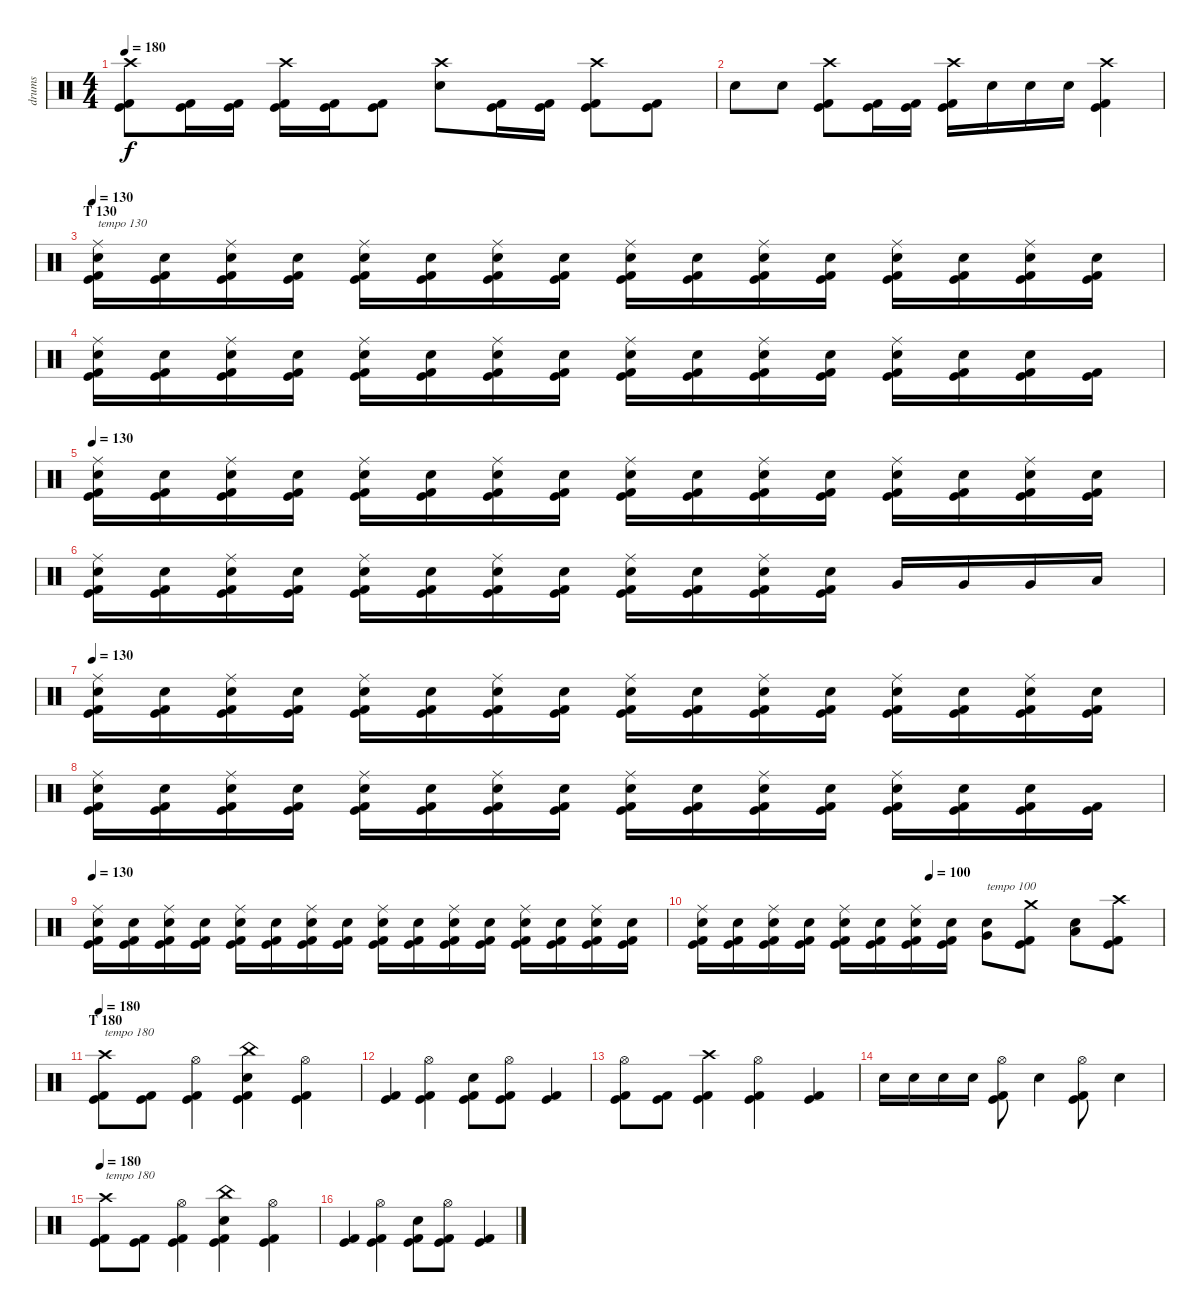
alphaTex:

\track ("drums" "drums") {instrument percussion}
\staff {score}
\articulation defaults
\ts (4 4)
\tempo 180
\clef neutral
\ks c
("Crash high (hit)" "Kick (hit) 2" "Kick (hit)").8{dy f} ("Kick (hit) 2" "Kick (hit)").16 ("Kick (hit) 2" "Kick (hit)").16 ("Crash high (hit)" "Kick (hit) 2" "Kick (hit)").16 ("Kick (hit) 2" "Kick (hit)").16 ("Kick (hit) 2" "Kick (hit)").8 ("Crash high (hit)" "Electric Snare (hit)").8 ("Kick (hit) 2" "Kick (hit)").16 ("Kick (hit) 2" "Kick (hit)").16 ("Crash high (hit)" "Kick (hit) 2" "Kick (hit)").8 ("Kick (hit) 2" "Kick (hit)").8 |
"Electric Snare (hit)".8 "Electric Snare (hit)".8 ("Crash high (hit)" "Kick (hit) 2" "Kick (hit)").8 ("Kick (hit) 2" "Kick (hit)").16 ("Kick (hit) 2" "Kick (hit)").16 ("Crash high (hit)" "Kick (hit) 2" "Kick (hit)").16 "Electric Snare (hit)".16 "Electric Snare (hit)".16 "Electric Snare (hit)".16 ("Crash high (hit)" "Kick (hit) 2" "Kick (hit)").4 |
\section ("" "T 130")
\tempo 130
("Ride (middle)" "Electric Snare (hit)" "Kick (hit) 2" "Kick (hit)").16{txt "tempo 130"} ("Electric Snare (hit)" "Kick (hit) 2" "Kick (hit)").16 ("Ride (middle)" "Electric Snare (hit)" "Kick (hit) 2" "Kick (hit)").16 ("Electric Snare (hit)" "Kick (hit) 2" "Kick (hit)").16 ("Ride (middle)" "Electric Snare (hit)" "Kick (hit) 2" "Kick (hit)").16 ("Electric Snare (hit)" "Kick (hit) 2" "Kick (hit)").16 ("Ride (middle)" "Electric Snare (hit)" "Kick (hit) 2" "Kick (hit)").16 ("Electric Snare (hit)" "Kick (hit) 2" "Kick (hit)").16 ("Ride (middle)" "Electric Snare (hit)" "Kick (hit) 2" "Kick (hit)").16 ("Electric Snare (hit)" "Kick (hit) 2" "Kick (hit)").16 ("Ride (middle)" "Electric Snare (hit)" "Kick (hit) 2" "Kick (hit)").16 ("Electric Snare (hit)" "Kick (hit) 2" "Kick (hit)").16 ("Ride (middle)" "Electric Snare (hit)" "Kick (hit) 2" "Kick (hit)").16 ("Electric Snare (hit)" "Kick (hit) 2" "Kick (hit)").16 ("Ride (middle)" "Electric Snare (hit)" "Kick (hit) 2" "Kick (hit)").16 ("Electric Snare (hit)" "Kick (hit) 2" "Kick (hit)").16 |
("Ride (middle)" "Electric Snare (hit)" "Kick (hit) 2" "Kick (hit)").16 ("Electric Snare (hit)" "Kick (hit) 2" "Kick (hit)").16 ("Ride (middle)" "Electric Snare (hit)" "Kick (hit) 2" "Kick (hit)").16 ("Electric Snare (hit)" "Kick (hit) 2" "Kick (hit)").16 ("Ride (middle)" "Electric Snare (hit)" "Kick (hit) 2" "Kick (hit)").16 ("Electric Snare (hit)" "Kick (hit) 2" "Kick (hit)").16 ("Ride (middle)" "Electric Snare (hit)" "Kick (hit) 2" "Kick (hit)").16 ("Electric Snare (hit)" "Kick (hit) 2" "Kick (hit)").16 ("Ride (middle)" "Electric Snare (hit)" "Kick (hit) 2" "Kick (hit)").16 ("Electric Snare (hit)" "Kick (hit) 2" "Kick (hit)").16 ("Ride (middle)" "Electric Snare (hit)" "Kick (hit) 2" "Kick (hit)").16 ("Electric Snare (hit)" "Kick (hit) 2" "Kick (hit)").16 ("Ride (middle)" "Electric Snare (hit)" "Kick (hit) 2" "Kick (hit)").16 ("Electric Snare (hit)" "Kick (hit) 2" "Kick (hit)").16 ("Electric Snare (hit)" "Kick (hit) 2" "Kick (hit)").16 ("Kick (hit) 2" "Kick (hit)").16 |
\tempo 130
("Ride (middle)" "Electric Snare (hit)" "Kick (hit) 2" "Kick (hit)").16 ("Electric Snare (hit)" "Kick (hit) 2" "Kick (hit)").16 ("Ride (middle)" "Electric Snare (hit)" "Kick (hit) 2" "Kick (hit)").16 ("Electric Snare (hit)" "Kick (hit) 2" "Kick (hit)").16 ("Ride (middle)" "Electric Snare (hit)" "Kick (hit) 2" "Kick (hit)").16 ("Electric Snare (hit)" "Kick (hit) 2" "Kick (hit)").16 ("Ride (middle)" "Electric Snare (hit)" "Kick (hit) 2" "Kick (hit)").16 ("Electric Snare (hit)" "Kick (hit) 2" "Kick (hit)").16 ("Ride (middle)" "Electric Snare (hit)" "Kick (hit) 2" "Kick (hit)").16 ("Electric Snare (hit)" "Kick (hit) 2" "Kick (hit)").16 ("Ride (middle)" "Electric Snare (hit)" "Kick (hit) 2" "Kick (hit)").16 ("Electric Snare (hit)" "Kick (hit) 2" "Kick (hit)").16 ("Ride (middle)" "Electric Snare (hit)" "Kick (hit) 2" "Kick (hit)").16 ("Electric Snare (hit)" "Kick (hit) 2" "Kick (hit)").16 ("Ride (middle)" "Electric Snare (hit)" "Kick (hit) 2" "Kick (hit)").16 ("Electric Snare (hit)" "Kick (hit) 2" "Kick (hit)").16 |
("Ride (middle)" "Electric Snare (hit)" "Kick (hit) 2" "Kick (hit)").16 ("Electric Snare (hit)" "Kick (hit) 2" "Kick (hit)").16 ("Ride (middle)" "Electric Snare (hit)" "Kick (hit) 2" "Kick (hit)").16 ("Electric Snare (hit)" "Kick (hit) 2" "Kick (hit)").16 ("Ride (middle)" "Electric Snare (hit)" "Kick (hit) 2" "Kick (hit)").16 ("Electric Snare (hit)" "Kick (hit) 2" "Kick (hit)").16 ("Ride (middle)" "Electric Snare (hit)" "Kick (hit) 2" "Kick (hit)").16 ("Electric Snare (hit)" "Kick (hit) 2" "Kick (hit)").16 ("Ride (middle)" "Electric Snare (hit)" "Kick (hit) 2" "Kick (hit)").16 ("Electric Snare (hit)" "Kick (hit) 2" "Kick (hit)").16 ("Ride (middle)" "Electric Snare (hit)" "Kick (hit) 2" "Kick (hit)").16 ("Electric Snare (hit)" "Kick (hit) 2" "Kick (hit)").16 "Very Low Tom (hit)".16 "Very Low Tom (hit)".16 "Very Low Tom (hit)".16 "Low Floor Tom (hit)".16 |
\tempo 130
("Ride (middle)" "Electric Snare (hit)" "Kick (hit) 2" "Kick (hit)").16 ("Electric Snare (hit)" "Kick (hit) 2" "Kick (hit)").16 ("Ride (middle)" "Electric Snare (hit)" "Kick (hit) 2" "Kick (hit)").16 ("Electric Snare (hit)" "Kick (hit) 2" "Kick (hit)").16 ("Ride (middle)" "Electric Snare (hit)" "Kick (hit) 2" "Kick (hit)").16 ("Electric Snare (hit)" "Kick (hit) 2" "Kick (hit)").16 ("Ride (middle)" "Electric Snare (hit)" "Kick (hit) 2" "Kick (hit)").16 ("Electric Snare (hit)" "Kick (hit) 2" "Kick (hit)").16 ("Ride (middle)" "Electric Snare (hit)" "Kick (hit) 2" "Kick (hit)").16 ("Electric Snare (hit)" "Kick (hit) 2" "Kick (hit)").16 ("Ride (middle)" "Electric Snare (hit)" "Kick (hit) 2" "Kick (hit)").16 ("Electric Snare (hit)" "Kick (hit) 2" "Kick (hit)").16 ("Ride (middle)" "Electric Snare (hit)" "Kick (hit) 2" "Kick (hit)").16 ("Electric Snare (hit)" "Kick (hit) 2" "Kick (hit)").16 ("Ride (middle)" "Electric Snare (hit)" "Kick (hit) 2" "Kick (hit)").16 ("Electric Snare (hit)" "Kick (hit) 2" "Kick (hit)").16 |
("Ride (middle)" "Electric Snare (hit)" "Kick (hit) 2" "Kick (hit)").16 ("Electric Snare (hit)" "Kick (hit) 2" "Kick (hit)").16 ("Ride (middle)" "Electric Snare (hit)" "Kick (hit) 2" "Kick (hit)").16 ("Electric Snare (hit)" "Kick (hit) 2" "Kick (hit)").16 ("Ride (middle)" "Electric Snare (hit)" "Kick (hit) 2" "Kick (hit)").16 ("Electric Snare (hit)" "Kick (hit) 2" "Kick (hit)").16 ("Ride (middle)" "Electric Snare (hit)" "Kick (hit) 2" "Kick (hit)").16 ("Electric Snare (hit)" "Kick (hit) 2" "Kick (hit)").16 ("Ride (middle)" "Electric Snare (hit)" "Kick (hit) 2" "Kick (hit)").16 ("Electric Snare (hit)" "Kick (hit) 2" "Kick (hit)").16 ("Ride (middle)" "Electric Snare (hit)" "Kick (hit) 2" "Kick (hit)").16 ("Electric Snare (hit)" "Kick (hit) 2" "Kick (hit)").16 ("Ride (middle)" "Electric Snare (hit)" "Kick (hit) 2" "Kick (hit)").16 ("Electric Snare (hit)" "Kick (hit) 2" "Kick (hit)").16 ("Electric Snare (hit)" "Kick (hit) 2" "Kick (hit)").16 ("Kick (hit) 2" "Kick (hit)").16 |
\tempo 130
("Ride (middle)" "Electric Snare (hit)" "Kick (hit) 2" "Kick (hit)").16 ("Electric Snare (hit)" "Kick (hit) 2" "Kick (hit)").16 ("Ride (middle)" "Electric Snare (hit)" "Kick (hit) 2" "Kick (hit)").16 ("Electric Snare (hit)" "Kick (hit) 2" "Kick (hit)").16 ("Ride (middle)" "Electric Snare (hit)" "Kick (hit) 2" "Kick (hit)").16 ("Electric Snare (hit)" "Kick (hit) 2" "Kick (hit)").16 ("Ride (middle)" "Electric Snare (hit)" "Kick (hit) 2" "Kick (hit)").16 ("Electric Snare (hit)" "Kick (hit) 2" "Kick (hit)").16 ("Ride (middle)" "Electric Snare (hit)" "Kick (hit) 2" "Kick (hit)").16 ("Electric Snare (hit)" "Kick (hit) 2" "Kick (hit)").16 ("Ride (middle)" "Electric Snare (hit)" "Kick (hit) 2" "Kick (hit)").16 ("Electric Snare (hit)" "Kick (hit) 2" "Kick (hit)").16 ("Ride (middle)" "Electric Snare (hit)" "Kick (hit) 2" "Kick (hit)").16 ("Electric Snare (hit)" "Kick (hit) 2" "Kick (hit)").16 ("Ride (middle)" "Electric Snare (hit)" "Kick (hit) 2" "Kick (hit)").16 ("Electric Snare (hit)" "Kick (hit) 2" "Kick (hit)").16 |
\tempo (100 0.5)
("Ride (middle)" "Electric Snare (hit)" "Kick (hit) 2" "Kick (hit)").16 ("Electric Snare (hit)" "Kick (hit) 2" "Kick (hit)").16 ("Ride (middle)" "Electric Snare (hit)" "Kick (hit) 2" "Kick (hit)").16 ("Electric Snare (hit)" "Kick (hit) 2" "Kick (hit)").16 ("Ride (middle)" "Electric Snare (hit)" "Kick (hit) 2" "Kick (hit)").16 ("Electric Snare (hit)" "Kick (hit) 2" "Kick (hit)").16 ("Ride (middle)" "Electric Snare (hit)" "Kick (hit) 2" "Kick (hit)").16 ("Electric Snare (hit)" "Kick (hit) 2" "Kick (hit)").16 ("Very Low Tom (hit)" "Electric Snare (hit)").8{txt "tempo 100"} ("Crash medium (hit)" "Kick (hit) 2" "Kick (hit)").8 ("Low Floor Tom (hit)" "Electric Snare (hit)").8 ("Crash high (hit)" "Kick (hit) 2" "Kick (hit)").8 |
\section ("" "T 180")
\tempo 180
("Crash high (hit)" "Kick (hit) 2" "Kick (hit)").8{txt "tempo 180"} ("Kick (hit) 2" "Kick (hit)").8 ("Hi-Hat (open)" "Kick (hit) 2" "Kick (hit)").4 ("China (hit)" "Electric Snare (hit)" "Kick (hit) 2" "Kick (hit)").4 ("Hi-Hat (open)" "Kick (hit)" "Kick (hit) 2").4 |
("Kick (hit) 2" "Kick (hit)").4 ("Hi-Hat (open)" "Kick (hit) 2" "Kick (hit)").4 ("Electric Snare (hit)" "Kick (hit) 2" "Kick (hit)").8 ("Hi-Hat (open)" "Kick (hit) 2" "Kick (hit)").8 ("Kick (hit) 2" "Kick (hit)").4 |
("Hi-Hat (open)" "Kick (hit) 2" "Kick (hit)").8 ("Kick (hit) 2" "Kick (hit)").8 ("Crash high (hit)" "Kick (hit) 2" "Kick (hit)").4 ("Hi-Hat (open)" "Kick (hit) 2" "Kick (hit)").4 ("Kick (hit) 2" "Kick (hit)").4 |
"Electric Snare (hit)".16 "Electric Snare (hit)".16 "Electric Snare (hit)".16 "Electric Snare (hit)".16 ("Hi-Hat (open)" "Kick (hit) 2" "Kick (hit)").8 "Electric Snare (hit)".4 ("Hi-Hat (open)" "Kick (hit) 2" "Kick (hit)").8 "Electric Snare (hit)".4 |
\tempo 180
("Crash high (hit)" "Kick (hit) 2" "Kick (hit)").8{txt "tempo 180"} ("Kick (hit) 2" "Kick (hit)").8 ("Hi-Hat (open)" "Kick (hit) 2" "Kick (hit)").4 ("China (hit)" "Electric Snare (hit)" "Kick (hit) 2" "Kick (hit)").4 ("Hi-Hat (open)" "Kick (hit)" "Kick (hit) 2").4 |
("Kick (hit) 2" "Kick (hit)").4 ("Hi-Hat (open)" "Kick (hit) 2" "Kick (hit)").4 ("Electric Snare (hit)" "Kick (hit) 2" "Kick (hit)").8 ("Hi-Hat (open)" "Kick (hit) 2" "Kick (hit)").8 ("Kick (hit) 2" "Kick (hit)").4
